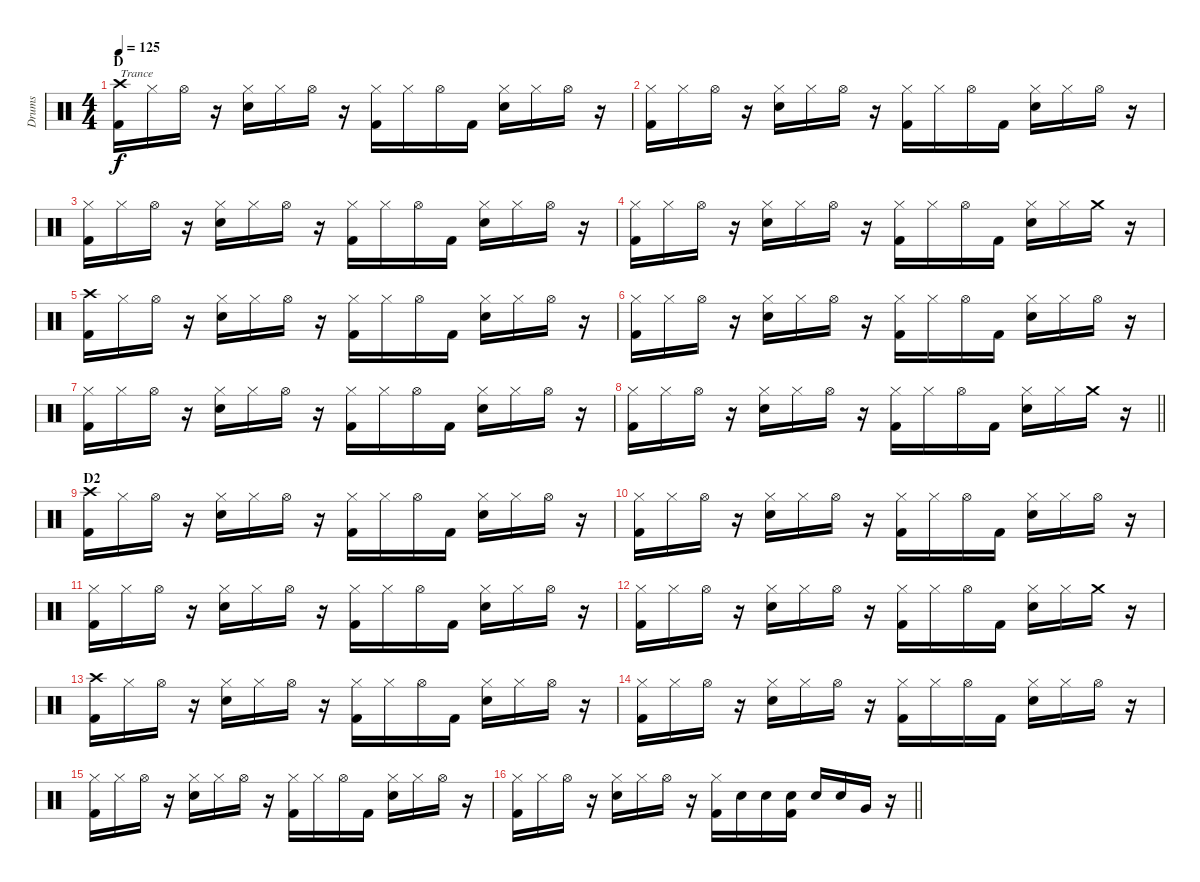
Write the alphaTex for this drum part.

\track ("Drums" "Drums") {instrument percussion}
\staff {score}
\articulation defaults
\ts (4 4)
\section ("" "D")
\tempo 125
\clef neutral
\ks c
("Crash high (hit)" "Kick (hit) 2").16{txt "Trance" dy f} "Hi-Hat (closed)".16 "Hi-Hat (open)".16 r.16 ("Hi-Hat (closed)" "Electric Snare (hit)").16 "Hi-Hat (closed)".16 "Hi-Hat (open)".16 r.16 ("Hi-Hat (closed)" "Kick (hit) 2").16 "Hi-Hat (closed)".16 "Hi-Hat (open)".16 "Kick (hit) 2".16 ("Hi-Hat (closed)" "Electric Snare (hit)").16 "Hi-Hat (closed)".16 "Hi-Hat (open)".16 r.16 |
("Hi-Hat (closed)" "Kick (hit) 2").16 "Hi-Hat (closed)".16 "Hi-Hat (open)".16 r.16 ("Hi-Hat (closed)" "Electric Snare (hit)").16 "Hi-Hat (closed)".16 "Hi-Hat (open)".16 r.16 ("Hi-Hat (closed)" "Kick (hit) 2").16 "Hi-Hat (closed)".16 "Hi-Hat (open)".16 "Kick (hit) 2".16 ("Hi-Hat (closed)" "Electric Snare (hit)").16 "Hi-Hat (closed)".16 "Hi-Hat (open)".16 r.16 |
("Hi-Hat (closed)" "Kick (hit) 2").16 "Hi-Hat (closed)".16 "Hi-Hat (open)".16 r.16 ("Hi-Hat (closed)" "Electric Snare (hit)").16 "Hi-Hat (closed)".16 "Hi-Hat (open)".16 r.16 ("Hi-Hat (closed)" "Kick (hit) 2").16 "Hi-Hat (closed)".16 "Hi-Hat (open)".16 "Kick (hit) 2".16 ("Hi-Hat (closed)" "Electric Snare (hit)").16 "Hi-Hat (closed)".16 "Hi-Hat (open)".16 r.16 |
("Hi-Hat (closed)" "Kick (hit) 2").16 "Hi-Hat (closed)".16 "Hi-Hat (open)".16 r.16 ("Hi-Hat (closed)" "Electric Snare (hit)").16 "Hi-Hat (closed)".16 "Hi-Hat (open)".16 r.16 ("Hi-Hat (closed)" "Kick (hit) 2").16 "Hi-Hat (closed)".16 "Hi-Hat (open)".16 "Kick (hit) 2".16 ("Hi-Hat (closed)" "Electric Snare (hit)").16 "Hi-Hat (closed)".16 "Crash medium (hit)".16 r.16 |
("Crash high (hit)" "Kick (hit) 2").16 "Hi-Hat (closed)".16 "Hi-Hat (open)".16 r.16 ("Hi-Hat (closed)" "Electric Snare (hit)").16 "Hi-Hat (closed)".16 "Hi-Hat (open)".16 r.16 ("Hi-Hat (closed)" "Kick (hit) 2").16 "Hi-Hat (closed)".16 "Hi-Hat (open)".16 "Kick (hit) 2".16 ("Hi-Hat (closed)" "Electric Snare (hit)").16 "Hi-Hat (closed)".16 "Hi-Hat (open)".16 r.16 |
("Hi-Hat (closed)" "Kick (hit) 2").16 "Hi-Hat (closed)".16 "Hi-Hat (open)".16 r.16 ("Hi-Hat (closed)" "Electric Snare (hit)").16 "Hi-Hat (closed)".16 "Hi-Hat (open)".16 r.16 ("Hi-Hat (closed)" "Kick (hit) 2").16 "Hi-Hat (closed)".16 "Hi-Hat (open)".16 "Kick (hit) 2".16 ("Hi-Hat (closed)" "Electric Snare (hit)").16 "Hi-Hat (closed)".16 "Hi-Hat (open)".16 r.16 |
("Hi-Hat (closed)" "Kick (hit) 2").16 "Hi-Hat (closed)".16 "Hi-Hat (open)".16 r.16 ("Hi-Hat (closed)" "Electric Snare (hit)").16 "Hi-Hat (closed)".16 "Hi-Hat (open)".16 r.16 ("Hi-Hat (closed)" "Kick (hit) 2").16 "Hi-Hat (closed)".16 "Hi-Hat (open)".16 "Kick (hit) 2".16 ("Hi-Hat (closed)" "Electric Snare (hit)").16 "Hi-Hat (closed)".16 "Hi-Hat (open)".16 r.16 |
\barLineRight lightlight
("Hi-Hat (closed)" "Kick (hit) 2").16 "Hi-Hat (closed)".16 "Hi-Hat (open)".16 r.16 ("Hi-Hat (closed)" "Electric Snare (hit)").16 "Hi-Hat (closed)".16 "Hi-Hat (open)".16 r.16 ("Hi-Hat (closed)" "Kick (hit) 2").16 "Hi-Hat (closed)".16 "Hi-Hat (open)".16 "Kick (hit) 2".16 ("Hi-Hat (closed)" "Electric Snare (hit)").16 "Hi-Hat (closed)".16 "Crash medium (hit)".16 r.16 |
\section ("" "D2")
("Crash high (hit)" "Kick (hit) 2").16 "Hi-Hat (closed)".16 "Hi-Hat (open)".16 r.16 ("Hi-Hat (closed)" "Electric Snare (hit)").16 "Hi-Hat (closed)".16 "Hi-Hat (open)".16 r.16 ("Hi-Hat (closed)" "Kick (hit) 2").16 "Hi-Hat (closed)".16 "Hi-Hat (open)".16 "Kick (hit) 2".16 ("Hi-Hat (closed)" "Electric Snare (hit)").16 "Hi-Hat (closed)".16 "Hi-Hat (open)".16 r.16 |
("Hi-Hat (closed)" "Kick (hit) 2").16 "Hi-Hat (closed)".16 "Hi-Hat (open)".16 r.16 ("Hi-Hat (closed)" "Electric Snare (hit)").16 "Hi-Hat (closed)".16 "Hi-Hat (open)".16 r.16 ("Hi-Hat (closed)" "Kick (hit) 2").16 "Hi-Hat (closed)".16 "Hi-Hat (open)".16 "Kick (hit) 2".16 ("Hi-Hat (closed)" "Electric Snare (hit)").16 "Hi-Hat (closed)".16 "Hi-Hat (open)".16 r.16 |
("Hi-Hat (closed)" "Kick (hit) 2").16 "Hi-Hat (closed)".16 "Hi-Hat (open)".16 r.16 ("Hi-Hat (closed)" "Electric Snare (hit)").16 "Hi-Hat (closed)".16 "Hi-Hat (open)".16 r.16 ("Hi-Hat (closed)" "Kick (hit) 2").16 "Hi-Hat (closed)".16 "Hi-Hat (open)".16 "Kick (hit) 2".16 ("Hi-Hat (closed)" "Electric Snare (hit)").16 "Hi-Hat (closed)".16 "Hi-Hat (open)".16 r.16 |
("Hi-Hat (closed)" "Kick (hit) 2").16 "Hi-Hat (closed)".16 "Hi-Hat (open)".16 r.16 ("Hi-Hat (closed)" "Electric Snare (hit)").16 "Hi-Hat (closed)".16 "Hi-Hat (open)".16 r.16 ("Hi-Hat (closed)" "Kick (hit) 2").16 "Hi-Hat (closed)".16 "Hi-Hat (open)".16 "Kick (hit) 2".16 ("Hi-Hat (closed)" "Electric Snare (hit)").16 "Hi-Hat (closed)".16 "Crash medium (hit)".16 r.16 |
("Crash high (hit)" "Kick (hit) 2").16 "Hi-Hat (closed)".16 "Hi-Hat (open)".16 r.16 ("Hi-Hat (closed)" "Electric Snare (hit)").16 "Hi-Hat (closed)".16 "Hi-Hat (open)".16 r.16 ("Hi-Hat (closed)" "Kick (hit) 2").16 "Hi-Hat (closed)".16 "Hi-Hat (open)".16 "Kick (hit) 2".16 ("Hi-Hat (closed)" "Electric Snare (hit)").16 "Hi-Hat (closed)".16 "Hi-Hat (open)".16 r.16 |
("Hi-Hat (closed)" "Kick (hit) 2").16 "Hi-Hat (closed)".16 "Hi-Hat (open)".16 r.16 ("Hi-Hat (closed)" "Electric Snare (hit)").16 "Hi-Hat (closed)".16 "Hi-Hat (open)".16 r.16 ("Hi-Hat (closed)" "Kick (hit) 2").16 "Hi-Hat (closed)".16 "Hi-Hat (open)".16 "Kick (hit) 2".16 ("Hi-Hat (closed)" "Electric Snare (hit)").16 "Hi-Hat (closed)".16 "Hi-Hat (open)".16 r.16 |
("Hi-Hat (closed)" "Kick (hit) 2").16 "Hi-Hat (closed)".16 "Hi-Hat (open)".16 r.16 ("Hi-Hat (closed)" "Electric Snare (hit)").16 "Hi-Hat (closed)".16 "Hi-Hat (open)".16 r.16 ("Hi-Hat (closed)" "Kick (hit) 2").16 "Hi-Hat (closed)".16 "Hi-Hat (open)".16 "Kick (hit) 2".16 ("Hi-Hat (closed)" "Electric Snare (hit)").16 "Hi-Hat (closed)".16 "Hi-Hat (open)".16 r.16 |
\barLineRight lightlight
("Hi-Hat (closed)" "Kick (hit) 2").16 "Hi-Hat (closed)".16 "Hi-Hat (open)".16 r.16 ("Hi-Hat (closed)" "Electric Snare (hit)").16 "Hi-Hat (closed)".16 "Hi-Hat (open)".16 r.16 ("Hi-Hat (closed)" "Kick (hit) 2").16 "Electric Snare (hit)".16 "Electric Snare (hit)".16 ("Electric Snare (hit)" "Kick (hit) 2").16 "Electric Snare (hit)".16 "Electric Snare (hit)".16 "Very Low Tom (hit)".16 r.16
